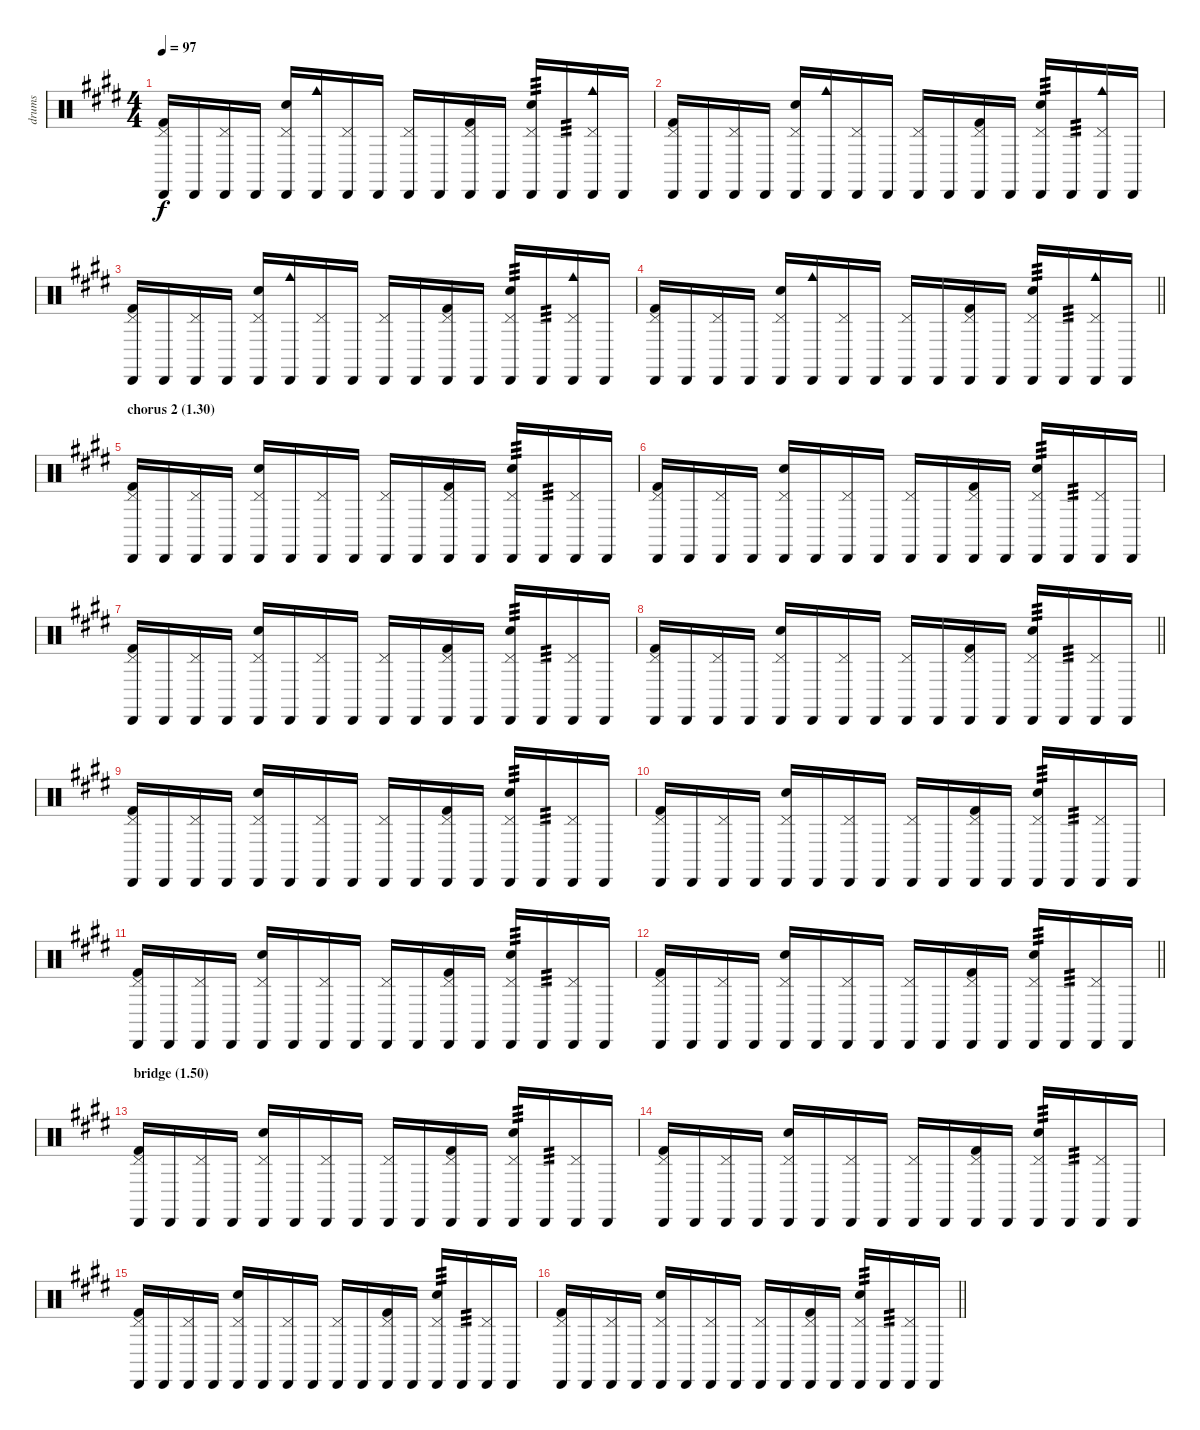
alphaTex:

\track ("drums" "drums") {instrument percussion}
\staff {score}
\articulation defaults
\ts (4 4)
\tempo 97
\clef neutral
\ks e
("Pedal Hi-Hat (hit)" "Cabasa (hit)" "Kick (hit) 2").16{dy f} "Cabasa (hit)".16 ("Pedal Hi-Hat (hit)" "Cabasa (hit)").16 "Cabasa (hit)".16 ("Pedal Hi-Hat (hit)" "Cabasa (hit)" "Electric Snare (hit)").16 ("Cabasa (hit)" "Cowbell medium (hit)").16 ("Pedal Hi-Hat (hit)" "Cabasa (hit)").16 "Cabasa (hit)".16 ("Pedal Hi-Hat (hit)" "Cabasa (hit)").16 "Cabasa (hit)".16 ("Pedal Hi-Hat (hit)" "Cabasa (hit)" "Kick (hit) 2").16 "Cabasa (hit)".16 ("Pedal Hi-Hat (hit)" "Cabasa (hit)" "Electric Snare (hit)").16{tp 3} "Cabasa (hit)".16{tp 3} ("Pedal Hi-Hat (hit)" "Cabasa (hit)" "Cowbell medium (hit)").16 "Cabasa (hit)".16 |
("Pedal Hi-Hat (hit)" "Cabasa (hit)" "Kick (hit) 2").16 "Cabasa (hit)".16 ("Pedal Hi-Hat (hit)" "Cabasa (hit)").16 "Cabasa (hit)".16 ("Pedal Hi-Hat (hit)" "Cabasa (hit)" "Electric Snare (hit)").16 ("Cabasa (hit)" "Cowbell medium (hit)").16 ("Pedal Hi-Hat (hit)" "Cabasa (hit)").16 "Cabasa (hit)".16 ("Pedal Hi-Hat (hit)" "Cabasa (hit)").16 "Cabasa (hit)".16 ("Pedal Hi-Hat (hit)" "Cabasa (hit)" "Kick (hit) 2").16 "Cabasa (hit)".16 ("Pedal Hi-Hat (hit)" "Cabasa (hit)" "Electric Snare (hit)").16{tp 3} "Cabasa (hit)".16{tp 3} ("Pedal Hi-Hat (hit)" "Cabasa (hit)" "Cowbell medium (hit)").16 "Cabasa (hit)".16 |
("Pedal Hi-Hat (hit)" "Cabasa (hit)" "Kick (hit) 2").16 "Cabasa (hit)".16 ("Pedal Hi-Hat (hit)" "Cabasa (hit)").16 "Cabasa (hit)".16 ("Pedal Hi-Hat (hit)" "Cabasa (hit)" "Electric Snare (hit)").16 ("Cabasa (hit)" "Cowbell medium (hit)").16 ("Pedal Hi-Hat (hit)" "Cabasa (hit)").16 "Cabasa (hit)".16 ("Pedal Hi-Hat (hit)" "Cabasa (hit)").16 "Cabasa (hit)".16 ("Pedal Hi-Hat (hit)" "Cabasa (hit)" "Kick (hit) 2").16 "Cabasa (hit)".16 ("Pedal Hi-Hat (hit)" "Cabasa (hit)" "Electric Snare (hit)").16{tp 3} "Cabasa (hit)".16{tp 3} ("Pedal Hi-Hat (hit)" "Cabasa (hit)" "Cowbell medium (hit)").16 "Cabasa (hit)".16 |
\barLineRight lightlight
("Pedal Hi-Hat (hit)" "Cabasa (hit)" "Kick (hit) 2").16 "Cabasa (hit)".16 ("Pedal Hi-Hat (hit)" "Cabasa (hit)").16 "Cabasa (hit)".16 ("Pedal Hi-Hat (hit)" "Cabasa (hit)" "Electric Snare (hit)").16 ("Cabasa (hit)" "Cowbell medium (hit)").16 ("Pedal Hi-Hat (hit)" "Cabasa (hit)").16 "Cabasa (hit)".16 ("Pedal Hi-Hat (hit)" "Cabasa (hit)").16 "Cabasa (hit)".16 ("Pedal Hi-Hat (hit)" "Cabasa (hit)" "Kick (hit) 2").16 "Cabasa (hit)".16 ("Pedal Hi-Hat (hit)" "Cabasa (hit)" "Electric Snare (hit)").16{tp 3} "Cabasa (hit)".16{tp 3} ("Pedal Hi-Hat (hit)" "Cabasa (hit)" "Cowbell medium (hit)").16 "Cabasa (hit)".16 |
\section ("" "chorus 2 (1.30)")
("Pedal Hi-Hat (hit)" "Cabasa (hit)" "Kick (hit) 2").16 "Cabasa (hit)".16 ("Pedal Hi-Hat (hit)" "Cabasa (hit)").16 "Cabasa (hit)".16 ("Pedal Hi-Hat (hit)" "Cabasa (hit)" "Electric Snare (hit)").16 "Cabasa (hit)".16 ("Pedal Hi-Hat (hit)" "Cabasa (hit)").16 "Cabasa (hit)".16 ("Pedal Hi-Hat (hit)" "Cabasa (hit)").16 "Cabasa (hit)".16 ("Pedal Hi-Hat (hit)" "Cabasa (hit)" "Kick (hit) 2").16 "Cabasa (hit)".16 ("Pedal Hi-Hat (hit)" "Cabasa (hit)" "Electric Snare (hit)").16{tp 3} "Cabasa (hit)".16{tp 3} ("Pedal Hi-Hat (hit)" "Cabasa (hit)").16 "Cabasa (hit)".16 |
("Pedal Hi-Hat (hit)" "Cabasa (hit)" "Kick (hit) 2").16 "Cabasa (hit)".16 ("Pedal Hi-Hat (hit)" "Cabasa (hit)").16 "Cabasa (hit)".16 ("Pedal Hi-Hat (hit)" "Cabasa (hit)" "Electric Snare (hit)").16 "Cabasa (hit)".16 ("Pedal Hi-Hat (hit)" "Cabasa (hit)").16 "Cabasa (hit)".16 ("Pedal Hi-Hat (hit)" "Cabasa (hit)").16 "Cabasa (hit)".16 ("Pedal Hi-Hat (hit)" "Cabasa (hit)" "Kick (hit) 2").16 "Cabasa (hit)".16 ("Pedal Hi-Hat (hit)" "Cabasa (hit)" "Electric Snare (hit)").16{tp 3} "Cabasa (hit)".16{tp 3} ("Pedal Hi-Hat (hit)" "Cabasa (hit)").16 "Cabasa (hit)".16 |
("Pedal Hi-Hat (hit)" "Cabasa (hit)" "Kick (hit) 2").16 "Cabasa (hit)".16 ("Pedal Hi-Hat (hit)" "Cabasa (hit)").16 "Cabasa (hit)".16 ("Pedal Hi-Hat (hit)" "Cabasa (hit)" "Electric Snare (hit)").16 "Cabasa (hit)".16 ("Pedal Hi-Hat (hit)" "Cabasa (hit)").16 "Cabasa (hit)".16 ("Pedal Hi-Hat (hit)" "Cabasa (hit)").16 "Cabasa (hit)".16 ("Pedal Hi-Hat (hit)" "Cabasa (hit)" "Kick (hit) 2").16 "Cabasa (hit)".16 ("Pedal Hi-Hat (hit)" "Cabasa (hit)" "Electric Snare (hit)").16{tp 3} "Cabasa (hit)".16{tp 3} ("Pedal Hi-Hat (hit)" "Cabasa (hit)").16 "Cabasa (hit)".16 |
\barLineRight lightlight
("Pedal Hi-Hat (hit)" "Cabasa (hit)" "Kick (hit) 2").16 "Cabasa (hit)".16 ("Pedal Hi-Hat (hit)" "Cabasa (hit)").16 "Cabasa (hit)".16 ("Pedal Hi-Hat (hit)" "Cabasa (hit)" "Electric Snare (hit)").16 "Cabasa (hit)".16 ("Pedal Hi-Hat (hit)" "Cabasa (hit)").16 "Cabasa (hit)".16 ("Pedal Hi-Hat (hit)" "Cabasa (hit)").16 "Cabasa (hit)".16 ("Pedal Hi-Hat (hit)" "Cabasa (hit)" "Kick (hit) 2").16 "Cabasa (hit)".16 ("Pedal Hi-Hat (hit)" "Cabasa (hit)" "Electric Snare (hit)").16{tp 3} "Cabasa (hit)".16{tp 3} ("Pedal Hi-Hat (hit)" "Cabasa (hit)").16 "Cabasa (hit)".16 |
("Pedal Hi-Hat (hit)" "Cabasa (hit)" "Kick (hit) 2").16 "Cabasa (hit)".16 ("Pedal Hi-Hat (hit)" "Cabasa (hit)").16 "Cabasa (hit)".16 ("Pedal Hi-Hat (hit)" "Cabasa (hit)" "Electric Snare (hit)").16 "Cabasa (hit)".16 ("Pedal Hi-Hat (hit)" "Cabasa (hit)").16 "Cabasa (hit)".16 ("Pedal Hi-Hat (hit)" "Cabasa (hit)").16 "Cabasa (hit)".16 ("Pedal Hi-Hat (hit)" "Cabasa (hit)" "Kick (hit) 2").16 "Cabasa (hit)".16 ("Pedal Hi-Hat (hit)" "Cabasa (hit)" "Electric Snare (hit)").16{tp 3} "Cabasa (hit)".16{tp 3} ("Pedal Hi-Hat (hit)" "Cabasa (hit)").16 "Cabasa (hit)".16 |
("Pedal Hi-Hat (hit)" "Cabasa (hit)" "Kick (hit) 2").16 "Cabasa (hit)".16 ("Pedal Hi-Hat (hit)" "Cabasa (hit)").16 "Cabasa (hit)".16 ("Pedal Hi-Hat (hit)" "Cabasa (hit)" "Electric Snare (hit)").16 "Cabasa (hit)".16 ("Pedal Hi-Hat (hit)" "Cabasa (hit)").16 "Cabasa (hit)".16 ("Pedal Hi-Hat (hit)" "Cabasa (hit)").16 "Cabasa (hit)".16 ("Pedal Hi-Hat (hit)" "Cabasa (hit)" "Kick (hit) 2").16 "Cabasa (hit)".16 ("Pedal Hi-Hat (hit)" "Cabasa (hit)" "Electric Snare (hit)").16{tp 3} "Cabasa (hit)".16{tp 3} ("Pedal Hi-Hat (hit)" "Cabasa (hit)").16 "Cabasa (hit)".16 |
("Pedal Hi-Hat (hit)" "Cabasa (hit)" "Kick (hit) 2").16 "Cabasa (hit)".16 ("Pedal Hi-Hat (hit)" "Cabasa (hit)").16 "Cabasa (hit)".16 ("Pedal Hi-Hat (hit)" "Cabasa (hit)" "Electric Snare (hit)").16 "Cabasa (hit)".16 ("Pedal Hi-Hat (hit)" "Cabasa (hit)").16 "Cabasa (hit)".16 ("Pedal Hi-Hat (hit)" "Cabasa (hit)").16 "Cabasa (hit)".16 ("Pedal Hi-Hat (hit)" "Cabasa (hit)" "Kick (hit) 2").16 "Cabasa (hit)".16 ("Pedal Hi-Hat (hit)" "Cabasa (hit)" "Electric Snare (hit)").16{tp 3} "Cabasa (hit)".16{tp 3} ("Pedal Hi-Hat (hit)" "Cabasa (hit)").16 "Cabasa (hit)".16 |
\barLineRight lightlight
("Pedal Hi-Hat (hit)" "Cabasa (hit)" "Kick (hit) 2").16 "Cabasa (hit)".16 ("Pedal Hi-Hat (hit)" "Cabasa (hit)").16 "Cabasa (hit)".16 ("Pedal Hi-Hat (hit)" "Cabasa (hit)" "Electric Snare (hit)").16 "Cabasa (hit)".16 ("Pedal Hi-Hat (hit)" "Cabasa (hit)").16 "Cabasa (hit)".16 ("Pedal Hi-Hat (hit)" "Cabasa (hit)").16 "Cabasa (hit)".16 ("Pedal Hi-Hat (hit)" "Cabasa (hit)" "Kick (hit) 2").16 "Cabasa (hit)".16 ("Pedal Hi-Hat (hit)" "Cabasa (hit)" "Electric Snare (hit)").16{tp 3} "Cabasa (hit)".16{tp 3} ("Pedal Hi-Hat (hit)" "Cabasa (hit)").16 "Cabasa (hit)".16 |
\section ("" "bridge (1.50)")
("Pedal Hi-Hat (hit)" "Cabasa (hit)" "Kick (hit) 2").16 "Cabasa (hit)".16 ("Pedal Hi-Hat (hit)" "Cabasa (hit)").16 "Cabasa (hit)".16 ("Pedal Hi-Hat (hit)" "Cabasa (hit)" "Electric Snare (hit)").16 "Cabasa (hit)".16 ("Pedal Hi-Hat (hit)" "Cabasa (hit)").16 "Cabasa (hit)".16 ("Pedal Hi-Hat (hit)" "Cabasa (hit)").16 "Cabasa (hit)".16 ("Pedal Hi-Hat (hit)" "Cabasa (hit)" "Kick (hit) 2").16 "Cabasa (hit)".16 ("Pedal Hi-Hat (hit)" "Cabasa (hit)" "Electric Snare (hit)").16{tp 3} "Cabasa (hit)".16{tp 3} ("Pedal Hi-Hat (hit)" "Cabasa (hit)").16 "Cabasa (hit)".16 |
("Pedal Hi-Hat (hit)" "Cabasa (hit)" "Kick (hit) 2").16 "Cabasa (hit)".16 ("Pedal Hi-Hat (hit)" "Cabasa (hit)").16 "Cabasa (hit)".16 ("Pedal Hi-Hat (hit)" "Cabasa (hit)" "Electric Snare (hit)").16 "Cabasa (hit)".16 ("Pedal Hi-Hat (hit)" "Cabasa (hit)").16 "Cabasa (hit)".16 ("Pedal Hi-Hat (hit)" "Cabasa (hit)").16 "Cabasa (hit)".16 ("Pedal Hi-Hat (hit)" "Cabasa (hit)" "Kick (hit) 2").16 "Cabasa (hit)".16 ("Pedal Hi-Hat (hit)" "Cabasa (hit)" "Electric Snare (hit)").16{tp 3} "Cabasa (hit)".16{tp 3} ("Pedal Hi-Hat (hit)" "Cabasa (hit)").16 "Cabasa (hit)".16 |
("Pedal Hi-Hat (hit)" "Cabasa (hit)" "Kick (hit) 2").16 "Cabasa (hit)".16 ("Pedal Hi-Hat (hit)" "Cabasa (hit)").16 "Cabasa (hit)".16 ("Pedal Hi-Hat (hit)" "Cabasa (hit)" "Electric Snare (hit)").16 "Cabasa (hit)".16 ("Pedal Hi-Hat (hit)" "Cabasa (hit)").16 "Cabasa (hit)".16 ("Pedal Hi-Hat (hit)" "Cabasa (hit)").16 "Cabasa (hit)".16 ("Pedal Hi-Hat (hit)" "Cabasa (hit)" "Kick (hit) 2").16 "Cabasa (hit)".16 ("Pedal Hi-Hat (hit)" "Cabasa (hit)" "Electric Snare (hit)").16{tp 3} "Cabasa (hit)".16{tp 3} ("Pedal Hi-Hat (hit)" "Cabasa (hit)").16 "Cabasa (hit)".16 |
\barLineRight lightlight
("Pedal Hi-Hat (hit)" "Cabasa (hit)" "Kick (hit) 2").16 "Cabasa (hit)".16 ("Pedal Hi-Hat (hit)" "Cabasa (hit)").16 "Cabasa (hit)".16 ("Pedal Hi-Hat (hit)" "Cabasa (hit)" "Electric Snare (hit)").16 "Cabasa (hit)".16 ("Pedal Hi-Hat (hit)" "Cabasa (hit)").16 "Cabasa (hit)".16 ("Pedal Hi-Hat (hit)" "Cabasa (hit)").16 "Cabasa (hit)".16 ("Pedal Hi-Hat (hit)" "Cabasa (hit)" "Kick (hit) 2").16 "Cabasa (hit)".16 ("Pedal Hi-Hat (hit)" "Cabasa (hit)" "Electric Snare (hit)").16{tp 3} "Cabasa (hit)".16{tp 3} ("Pedal Hi-Hat (hit)" "Cabasa (hit)").16 "Cabasa (hit)".16
